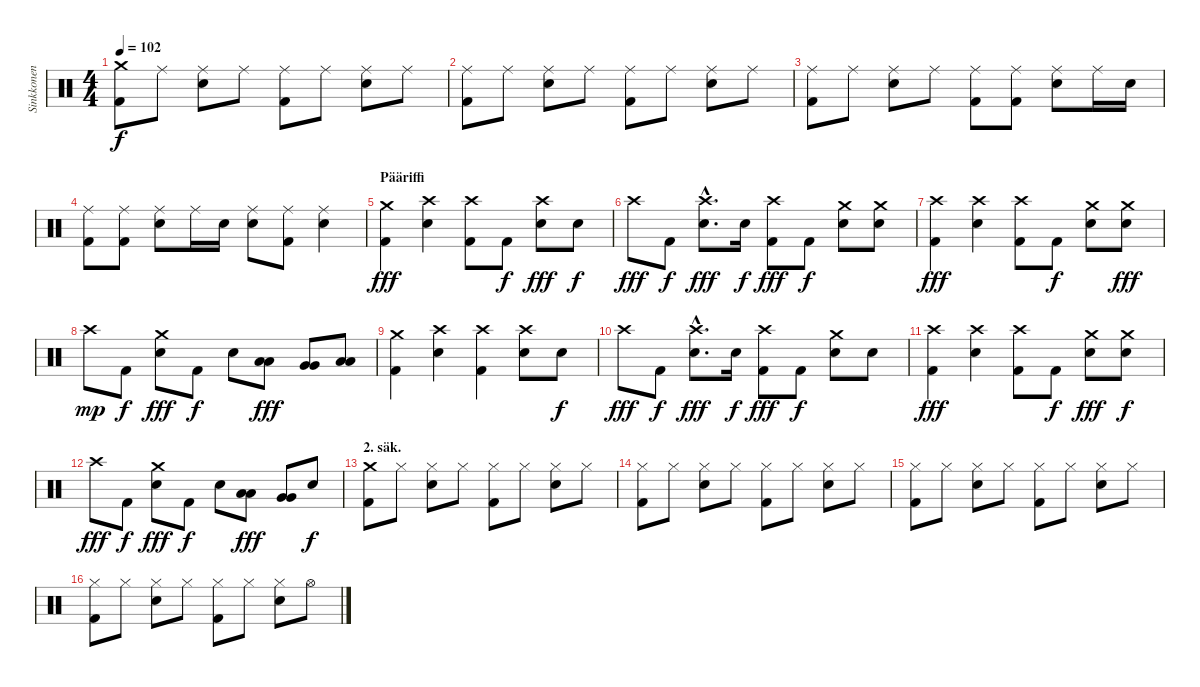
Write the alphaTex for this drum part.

\track ("Sinkkonen" "Sinkkonen") {instrument percussion}
\staff {score}
\articulation defaults
\ts (4 4)
\tempo 102
\clef neutral
\ks c
("Kick (hit) 2" "Crash medium (hit)").8{dy f} "Ride (middle)".8 ("Ride (middle)" "Snare (hit) 2").8 "Ride (middle)".8 ("Kick (hit) 2" "Ride (middle)").8 "Ride (middle)".8 ("Ride (middle)" "Snare (hit) 2").8 "Ride (middle)".8 |
("Kick (hit) 2" "Ride (middle)").8 "Ride (middle)".8 ("Ride (middle)" "Snare (hit) 2").8 "Ride (middle)".8 ("Kick (hit) 2" "Ride (middle)").8 "Ride (middle)".8 ("Ride (middle)" "Snare (hit) 2").8 "Ride (middle)".8 |
("Kick (hit) 2" "Ride (middle)").8 "Ride (middle)".8 ("Ride (middle)" "Snare (hit) 2").8 "Ride (middle)".8 ("Kick (hit) 2" "Ride (middle)").8 ("Kick (hit) 2" "Ride (middle)").8 ("Ride (middle)" "Snare (hit) 2").8 "Ride (middle)".16 "Snare (hit) 2".16 |
("Kick (hit) 2" "Ride (middle)").8 ("Kick (hit) 2" "Ride (middle)").8 ("Ride (middle)" "Snare (hit) 2").8 "Ride (middle)".16 "Snare (hit) 2".16 ("Ride (middle)" "Snare (hit) 2").8 ("Kick (hit) 2" "Ride (middle)").8 ("Ride (middle)" "Snare (hit) 2").4 |
\section ("" "Pääriffi")
("Kick (hit) 2" "Crash medium (hit)").4{dy fff} ("Crash high (hit)" "Snare (hit) 2").4 ("Kick (hit) 2" "Crash high (hit)").8 "Kick (hit) 2".8{dy f} ("Crash high (hit)" "Snare (hit) 2").8{dy fff} "Snare (hit) 2".8{dy f} |
"Crash high (hit)".8{dy fff} "Kick (hit) 2".8{dy f} ("Crash high (hit)"{hac} "Snare (hit) 2"{hac}).8{d dy fff} "Snare (hit) 2".16{dy f} ("Kick (hit) 2" "Crash high (hit)").8{dy fff} "Kick (hit) 2".8{dy f} ("Crash medium (hit)" "Snare (hit) 2").8 ("Crash medium (hit)" "Snare (hit) 2").8 |
("Kick (hit) 2" "Crash high (hit)").4{dy fff} ("Crash high (hit)" "Snare (hit) 2").4 ("Kick (hit) 2" "Crash high (hit)").8 "Kick (hit) 2".8{dy f} ("Crash medium (hit)" "Snare (hit) 2").8 ("Crash medium (hit)" "Snare (hit) 2").8{dy fff} |
"Crash high (hit)".8{dy mp} "Kick (hit) 2".8{dy f} ("Crash medium (hit)" "Snare (hit) 2").8{dy fff} "Kick (hit) 2".8{dy f} "Snare (hit) 2".8 ("Low Tom (hit)" "Low Tom (hit)").8{dy fff} ("Very Low Tom (hit)" "Very Low Tom (hit)").8 ("Low Floor Tom (hit)" "Low Floor Tom (hit)").8 |
("Kick (hit) 2" "Crash medium (hit)").4 ("Crash high (hit)" "Snare (hit) 2").4 ("Kick (hit) 2" "Crash high (hit)").4 ("Crash high (hit)" "Snare (hit) 2").8 "Snare (hit) 2".8{dy f} |
"Crash high (hit)".8{dy fff} "Kick (hit) 2".8{dy f} ("Crash high (hit)"{hac} "Snare (hit) 2"{hac}).8{d dy fff} "Snare (hit) 2".16{dy f} ("Kick (hit) 2" "Crash high (hit)").8{dy fff} "Kick (hit) 2".8{dy f} ("Crash medium (hit)" "Snare (hit) 2").8 "Snare (hit) 2".8 |
("Kick (hit) 2" "Crash high (hit)").4{dy fff} ("Crash high (hit)" "Snare (hit) 2").4 ("Kick (hit) 2" "Crash high (hit)").8 "Kick (hit) 2".8{dy f} ("Crash medium (hit)" "Snare (hit) 2").8{dy fff} ("Crash medium (hit)" "Snare (hit) 2").8{dy f} |
"Crash high (hit)".8{dy fff} "Kick (hit) 2".8{dy f} ("Crash medium (hit)" "Snare (hit) 2").8{dy fff} "Kick (hit) 2".8{dy f} "Snare (hit) 2".8 ("Low Tom (hit)" "Low Tom (hit)").8{dy fff} ("Very Low Tom (hit)" "Very Low Tom (hit)").8 "Snare (hit) 2".8{dy f} |
\section ("" "2. säk.")
("Kick (hit) 2" "Crash medium (hit)").8 "Hi-Hat (closed)".8 ("Hi-Hat (closed)" "Snare (hit) 2").8 "Hi-Hat (closed)".8 ("Kick (hit) 2" "Hi-Hat (closed)").8 "Hi-Hat (closed)".8 ("Hi-Hat (closed)" "Snare (hit) 2").8 "Hi-Hat (closed)".8 |
("Kick (hit) 2" "Hi-Hat (closed)").8 "Hi-Hat (closed)".8 ("Hi-Hat (closed)" "Snare (hit) 2").8 "Hi-Hat (closed)".8 ("Kick (hit) 2" "Hi-Hat (closed)").8 "Hi-Hat (closed)".8 ("Hi-Hat (closed)" "Snare (hit) 2").8 "Hi-Hat (closed)".8 |
("Kick (hit) 2" "Hi-Hat (closed)").8 "Hi-Hat (closed)".8 ("Hi-Hat (closed)" "Snare (hit) 2").8 "Hi-Hat (closed)".8 ("Kick (hit) 2" "Hi-Hat (closed)").8 "Hi-Hat (closed)".8 ("Hi-Hat (closed)" "Snare (hit) 2").8 "Hi-Hat (closed)".8 |
("Kick (hit) 2" "Hi-Hat (closed)").8 "Hi-Hat (closed)".8 ("Hi-Hat (closed)" "Snare (hit) 2").8 "Hi-Hat (closed)".8 ("Kick (hit) 2" "Hi-Hat (closed)").8 "Hi-Hat (closed)".8 ("Hi-Hat (closed)" "Snare (hit) 2").8 "Hi-Hat (open)".8
